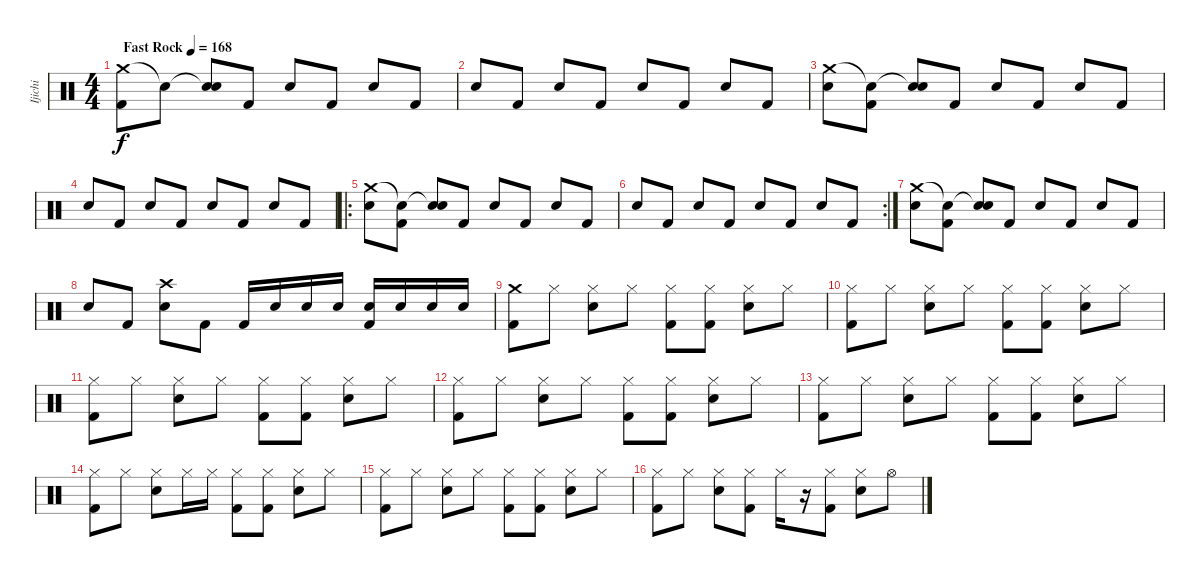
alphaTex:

\track ("Ijichi" "Ijichi") {instrument percussion}
\staff {score}
\articulation defaults
\ts (4 4)
\tempo (168 "Fast Rock")
\clef neutral
\ks c
("Crash medium (hit)" "Kick (hit) 2").8{dy f} "Snare (hit)"{t}.8 ("Snare (hit)"{t} "Electric Snare (hit)").8 "Kick (hit) 2".8 "Electric Snare (hit)".8 "Kick (hit) 2".8 "Electric Snare (hit)".8 "Kick (hit) 2".8 |
"Electric Snare (hit)".8 "Kick (hit) 2".8 "Electric Snare (hit)".8 "Kick (hit) 2".8 "Electric Snare (hit)".8 "Kick (hit) 2".8 "Electric Snare (hit)".8 "Kick (hit) 2".8 |
("Crash medium (hit)" "Electric Snare (hit)").8 ("Snare (hit)"{t} "Kick (hit) 2").8 ("Snare (hit)"{t} "Electric Snare (hit)").8 "Kick (hit) 2".8 "Electric Snare (hit)".8 "Kick (hit) 2".8 "Electric Snare (hit)".8 "Kick (hit) 2".8 |
"Electric Snare (hit)".8 "Kick (hit) 2".8 "Electric Snare (hit)".8 "Kick (hit) 2".8 "Electric Snare (hit)".8 "Kick (hit) 2".8 "Electric Snare (hit)".8 "Kick (hit) 2".8 |
\ro
("Crash medium (hit)" "Electric Snare (hit)").8 ("Snare (hit)"{t} "Kick (hit) 2").8 ("Snare (hit)"{t} "Electric Snare (hit)").8 "Kick (hit) 2".8 "Electric Snare (hit)".8 "Kick (hit) 2".8 "Electric Snare (hit)".8 "Kick (hit) 2".8 |
\rc 2 "Electric Snare (hit)".8 "Kick (hit) 2".8 "Electric Snare (hit)".8 "Kick (hit) 2".8 "Electric Snare (hit)".8 "Kick (hit) 2".8 "Electric Snare (hit)".8 "Kick (hit) 2".8
|
("Crash medium (hit)" "Electric Snare (hit)").8 ("Snare (hit)"{t} "Kick (hit) 2").8 ("Snare (hit)"{t} "Electric Snare (hit)").8 "Kick (hit) 2".8 "Electric Snare (hit)".8 "Kick (hit) 2".8 "Electric Snare (hit)".8 "Kick (hit) 2".8 |
"Electric Snare (hit)".8 "Kick (hit) 2".8 ("Crash high (hit)" "Electric Snare (hit)").8 "Kick (hit) 2".8 "Kick (hit) 2".16 "Electric Snare (hit)".16 "Electric Snare (hit)".16 "Electric Snare (hit)".16 ("Electric Snare (hit)" "Kick (hit) 2").16 "Electric Snare (hit)".16 "Electric Snare (hit)".16 "Electric Snare (hit)".16 |
("Crash medium (hit)" "Kick (hit) 2").8 "Hi-Hat (closed)".8 ("Hi-Hat (closed)" "Electric Snare (hit)").8 "Hi-Hat (closed)".8 ("Hi-Hat (closed)" "Kick (hit) 2").8 ("Hi-Hat (closed)" "Kick (hit) 2").8 ("Hi-Hat (closed)" "Electric Snare (hit)").8 "Hi-Hat (closed)".8 |
("Hi-Hat (closed)" "Kick (hit) 2").8 "Hi-Hat (closed)".8 ("Hi-Hat (closed)" "Electric Snare (hit)").8 "Hi-Hat (closed)".8 ("Hi-Hat (closed)" "Kick (hit) 2").8 ("Hi-Hat (closed)" "Kick (hit) 2").8 ("Hi-Hat (closed)" "Electric Snare (hit)").8 "Hi-Hat (closed)".8 |
("Hi-Hat (closed)" "Kick (hit) 2").8 "Hi-Hat (closed)".8 ("Hi-Hat (closed)" "Electric Snare (hit)").8 "Hi-Hat (closed)".8 ("Hi-Hat (closed)" "Kick (hit) 2").8 ("Hi-Hat (closed)" "Kick (hit) 2").8 ("Hi-Hat (closed)" "Electric Snare (hit)").8 "Hi-Hat (closed)".8 |
("Hi-Hat (closed)" "Kick (hit) 2").8 "Hi-Hat (closed)".8 ("Hi-Hat (closed)" "Electric Snare (hit)").8 "Hi-Hat (closed)".8 ("Hi-Hat (closed)" "Kick (hit) 2").8 ("Hi-Hat (closed)" "Kick (hit) 2").8 ("Hi-Hat (closed)" "Electric Snare (hit)").8 "Hi-Hat (closed)".8 |
("Hi-Hat (closed)" "Kick (hit) 2").8 "Hi-Hat (closed)".8 ("Hi-Hat (closed)" "Electric Snare (hit)").8 "Hi-Hat (closed)".8 ("Hi-Hat (closed)" "Kick (hit) 2").8 ("Hi-Hat (closed)" "Kick (hit) 2").8 ("Hi-Hat (closed)" "Electric Snare (hit)").8 "Hi-Hat (closed)".8 |
("Hi-Hat (closed)" "Kick (hit) 2").8 "Hi-Hat (closed)".8 ("Hi-Hat (closed)" "Electric Snare (hit)").8 "Hi-Hat (closed)".16 "Hi-Hat (closed)".16 ("Hi-Hat (closed)" "Kick (hit) 2").8 ("Hi-Hat (closed)" "Kick (hit) 2").8 ("Hi-Hat (closed)" "Electric Snare (hit)").8 "Hi-Hat (closed)".8 |
("Hi-Hat (closed)" "Kick (hit) 2").8 "Hi-Hat (closed)".8 ("Hi-Hat (closed)" "Electric Snare (hit)").8 "Hi-Hat (closed)".8 ("Hi-Hat (closed)" "Kick (hit) 2").8 ("Hi-Hat (closed)" "Kick (hit) 2").8 ("Hi-Hat (closed)" "Electric Snare (hit)").8 "Hi-Hat (closed)".8 |
("Hi-Hat (closed)" "Kick (hit) 2").8 "Hi-Hat (closed)".8 ("Hi-Hat (closed)" "Electric Snare (hit)").8 ("Hi-Hat (closed)" "Kick (hit) 2").8 "Hi-Hat (closed)".16 r.16 ("Hi-Hat (closed)" "Kick (hit) 2").8 ("Hi-Hat (closed)" "Electric Snare (hit)").8 "Hi-Hat (open)".8
